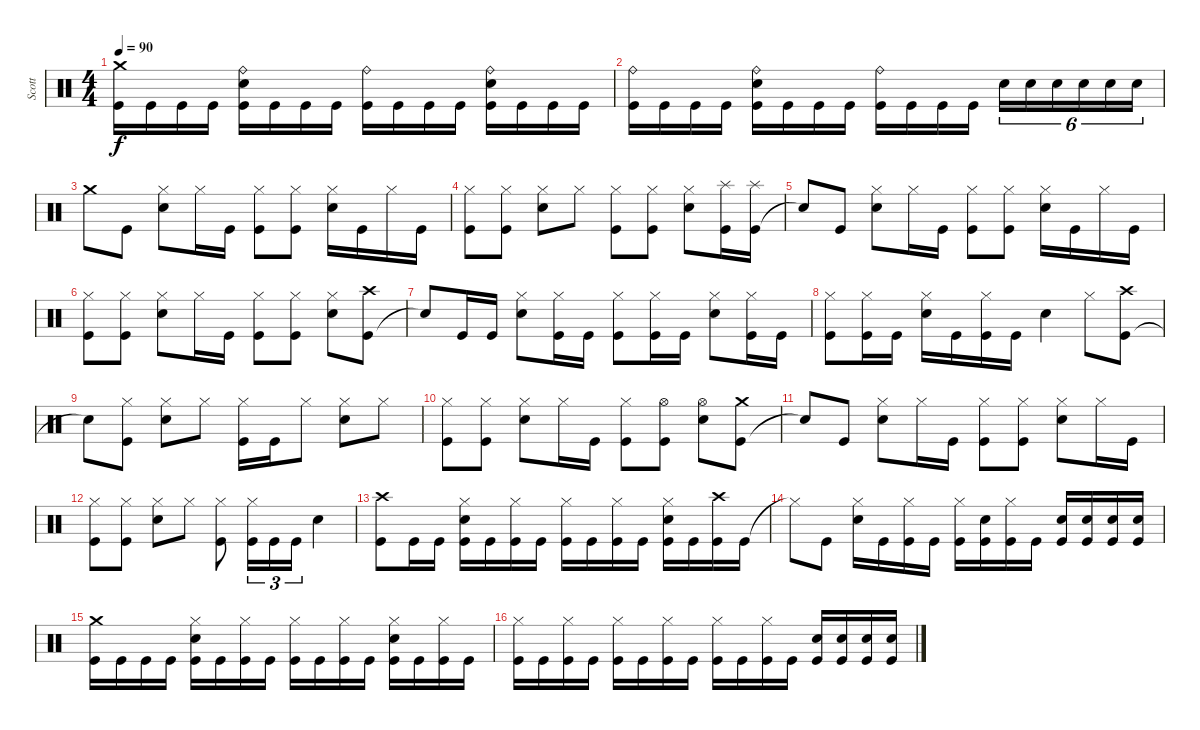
\track ("Scott" "Scott") {instrument percussion}
\staff {score}
\articulation defaults
\ts (4 4)
\tempo 90
\clef neutral
\ks c
("Kick (hit)" "Crash medium (hit)").16{dy f} "Kick (hit)".16 "Kick (hit)".16 "Kick (hit)".16 ("Kick (hit)" "Snare (hit) 2" "Ride (bell)").16 "Kick (hit)".16 "Kick (hit)".16 "Kick (hit)".16 ("Kick (hit)" "Ride (bell)").16 "Kick (hit)".16 "Kick (hit)".16 "Kick (hit)".16 ("Kick (hit)" "Snare (hit) 2" "Ride (bell)").16 "Kick (hit)".16 "Kick (hit)".16 "Kick (hit)".16 |
("Kick (hit)" "Ride (bell)").16 "Kick (hit)".16 "Kick (hit)".16 "Kick (hit)".16 ("Kick (hit)" "Snare (hit) 2" "Ride (bell)").16 "Kick (hit)".16 "Kick (hit)".16 "Kick (hit)".16 ("Kick (hit)" "Ride (bell)").16 "Kick (hit)".16 "Kick (hit)".16 "Kick (hit)".16 "Snare (hit) 2".16{tu (6 4)} "Snare (hit) 2".16{tu (6 4)} "Snare (hit) 2".16{tu (6 4)} "Snare (hit) 2".16{tu (6 4)} "Snare (hit) 2".16{tu (6 4)} "Snare (hit) 2".16{tu (6 4)} |
"Crash medium (hit)".8 "Kick (hit)".8 ("Snare (hit) 2" "Hi-Hat (closed)").8 "Hi-Hat (closed)".16 "Kick (hit)".16 ("Kick (hit)" "Hi-Hat (closed)").8 ("Kick (hit)" "Hi-Hat (closed)").8 ("Snare (hit) 2" "Hi-Hat (closed)").16 "Kick (hit)".16 "Hi-Hat (closed)".16 "Kick (hit)".16 |
("Kick (hit)" "Hi-Hat (closed)").8 ("Kick (hit)" "Hi-Hat (closed)").8 ("Snare (hit) 2" "Hi-Hat (closed)").8 "Hi-Hat (closed)".8 ("Kick (hit)" "Hi-Hat (closed)").8 ("Kick (hit)" "Hi-Hat (closed)").8 ("Snare (hit) 2" "Hi-Hat (closed)").8 ("Kick (hit)" "Splash (hit)").16 ("Kick (hit)" "Splash (hit)").16 |
"Snare (hit)"{t}.8 "Kick (hit)".8 ("Snare (hit) 2" "Hi-Hat (closed)").8 "Hi-Hat (closed)".16 "Kick (hit)".16 ("Kick (hit)" "Hi-Hat (closed)").8 ("Kick (hit)" "Hi-Hat (closed)").8 ("Snare (hit) 2" "Hi-Hat (closed)").16 "Kick (hit)".16 "Hi-Hat (closed)".16 "Kick (hit)".16 |
("Kick (hit)" "Hi-Hat (closed)").8 ("Kick (hit)" "Hi-Hat (closed)").8 ("Snare (hit) 2" "Hi-Hat (closed)").8 "Hi-Hat (closed)".16 "Kick (hit)".16 ("Kick (hit)" "Hi-Hat (closed)").8 ("Kick (hit)" "Hi-Hat (closed)").8 ("Snare (hit) 2" "Hi-Hat (closed)").8 ("Kick (hit)" "Crash high (hit)").8 |
"Snare (hit)"{t}.8 "Kick (hit)".16 "Kick (hit)".16 ("Snare (hit) 2" "Hi-Hat (closed)").8 ("Kick (hit)" "Hi-Hat (closed)").16 "Kick (hit)".16 ("Kick (hit)" "Hi-Hat (closed)").8 ("Kick (hit)" "Hi-Hat (closed)").16 "Kick (hit)".16 ("Snare (hit) 2" "Hi-Hat (closed)").8 ("Kick (hit)" "Hi-Hat (closed)").16 "Kick (hit)".16 |
("Kick (hit)" "Hi-Hat (closed)").8 ("Kick (hit)" "Hi-Hat (closed)").16 "Kick (hit)".16 ("Snare (hit) 2" "Hi-Hat (closed)").16 "Kick (hit)".16 ("Kick (hit)" "Hi-Hat (closed)").16 "Kick (hit)".16 "Snare (hit) 2".4 "Hi-Hat (closed)".8 ("Kick (hit)" "Crash high (hit)").8 |
"Snare (hit)"{t}.8 ("Kick (hit)" "Hi-Hat (closed)").8 ("Snare (hit) 2" "Hi-Hat (closed)").8 "Hi-Hat (closed)".8 ("Kick (hit)" "Hi-Hat (closed)").16 "Kick (hit)".16 "Hi-Hat (closed)".8 ("Snare (hit) 2" "Hi-Hat (closed)").8 "Hi-Hat (closed)".8 |
("Kick (hit)" "Hi-Hat (closed)").8 ("Kick (hit)" "Hi-Hat (closed)").8 ("Snare (hit) 2" "Hi-Hat (closed)").8 "Hi-Hat (closed)".16 "Kick (hit)".16 ("Kick (hit)" "Hi-Hat (closed)").8 ("Kick (hit)" "Hi-Hat (open)").8 ("Snare (hit) 2" "Hi-Hat (open)").8 ("Kick (hit)" "Crash medium (hit)").8 |
"Snare (hit)"{t}.8 "Kick (hit)".8 ("Snare (hit) 2" "Hi-Hat (closed)").8 "Hi-Hat (closed)".16 "Kick (hit)".16 ("Kick (hit)" "Hi-Hat (closed)").8 ("Kick (hit)" "Hi-Hat (closed)").8 ("Snare (hit) 2" "Hi-Hat (closed)").8 "Hi-Hat (closed)".16 "Kick (hit)".16 |
("Kick (hit)" "Hi-Hat (closed)").8 ("Kick (hit)" "Hi-Hat (closed)").8 ("Snare (hit) 2" "Hi-Hat (closed)").8 "Hi-Hat (closed)".8 ("Kick (hit)" "Hi-Hat (closed)").8 ("Kick (hit)" "Hi-Hat (closed)").16{tu (3 2)} "Kick (hit)".16{tu (3 2)} "Kick (hit)".16{tu (3 2)} "Snare (hit) 2".4 |
("Kick (hit)" "Crash high (hit)").8 "Kick (hit)".16 "Kick (hit)".16 ("Kick (hit)" "Snare (hit) 2" "Hi-Hat (closed)").16 "Kick (hit)".16 ("Kick (hit)" "Hi-Hat (closed)").16 "Kick (hit)".16 ("Kick (hit)" "Hi-Hat (closed)").16 "Kick (hit)".16 ("Kick (hit)" "Hi-Hat (closed)").16 "Kick (hit)".16 ("Kick (hit)" "Snare (hit) 2" "Hi-Hat (closed)").16 "Kick (hit)".16 ("Kick (hit)" "Crash high (hit)").16 "Kick (hit)".16 |
"Hi-Hat (closed)"{t}.8 "Kick (hit)".8 ("Snare (hit) 2" "Hi-Hat (closed)").16 "Kick (hit)".16 ("Kick (hit)" "Hi-Hat (closed)").16 "Kick (hit)".16 ("Kick (hit)" "Hi-Hat (closed)").16 ("Kick (hit)" "Snare (hit) 2").16 ("Kick (hit)" "Hi-Hat (closed)").16 "Kick (hit)".16 ("Kick (hit)" "Snare (hit) 2").16 ("Kick (hit)" "Snare (hit) 2").16 ("Kick (hit)" "Snare (hit) 2").16 ("Kick (hit)" "Snare (hit) 2").16 |
("Kick (hit)" "Crash medium (hit)").16 "Kick (hit)".16 "Kick (hit)".16 "Kick (hit)".16 ("Kick (hit)" "Snare (hit) 2" "Hi-Hat (closed)").16 "Kick (hit)".16 ("Kick (hit)" "Hi-Hat (closed)").16 "Kick (hit)".16 ("Kick (hit)" "Hi-Hat (closed)").16 "Kick (hit)".16 ("Kick (hit)" "Hi-Hat (closed)").16 "Kick (hit)".16 ("Kick (hit)" "Snare (hit) 2" "Hi-Hat (closed)").16 "Kick (hit)".16 ("Kick (hit)" "Hi-Hat (closed)").16 "Kick (hit)".16 |
("Kick (hit)" "Hi-Hat (closed)").16 "Kick (hit)".16 ("Kick (hit)" "Hi-Hat (closed)").16 "Kick (hit)".16 ("Kick (hit)" "Hi-Hat (closed)").16 "Kick (hit)".16 ("Kick (hit)" "Hi-Hat (closed)").16 "Kick (hit)".16 ("Kick (hit)" "Hi-Hat (closed)").16 "Kick (hit)".16 ("Kick (hit)" "Hi-Hat (closed)").16 "Kick (hit)".16 ("Kick (hit)" "Snare (hit) 2").16 ("Kick (hit)" "Snare (hit) 2").16 ("Kick (hit)" "Snare (hit) 2").16 ("Kick (hit)" "Snare (hit) 2").16
